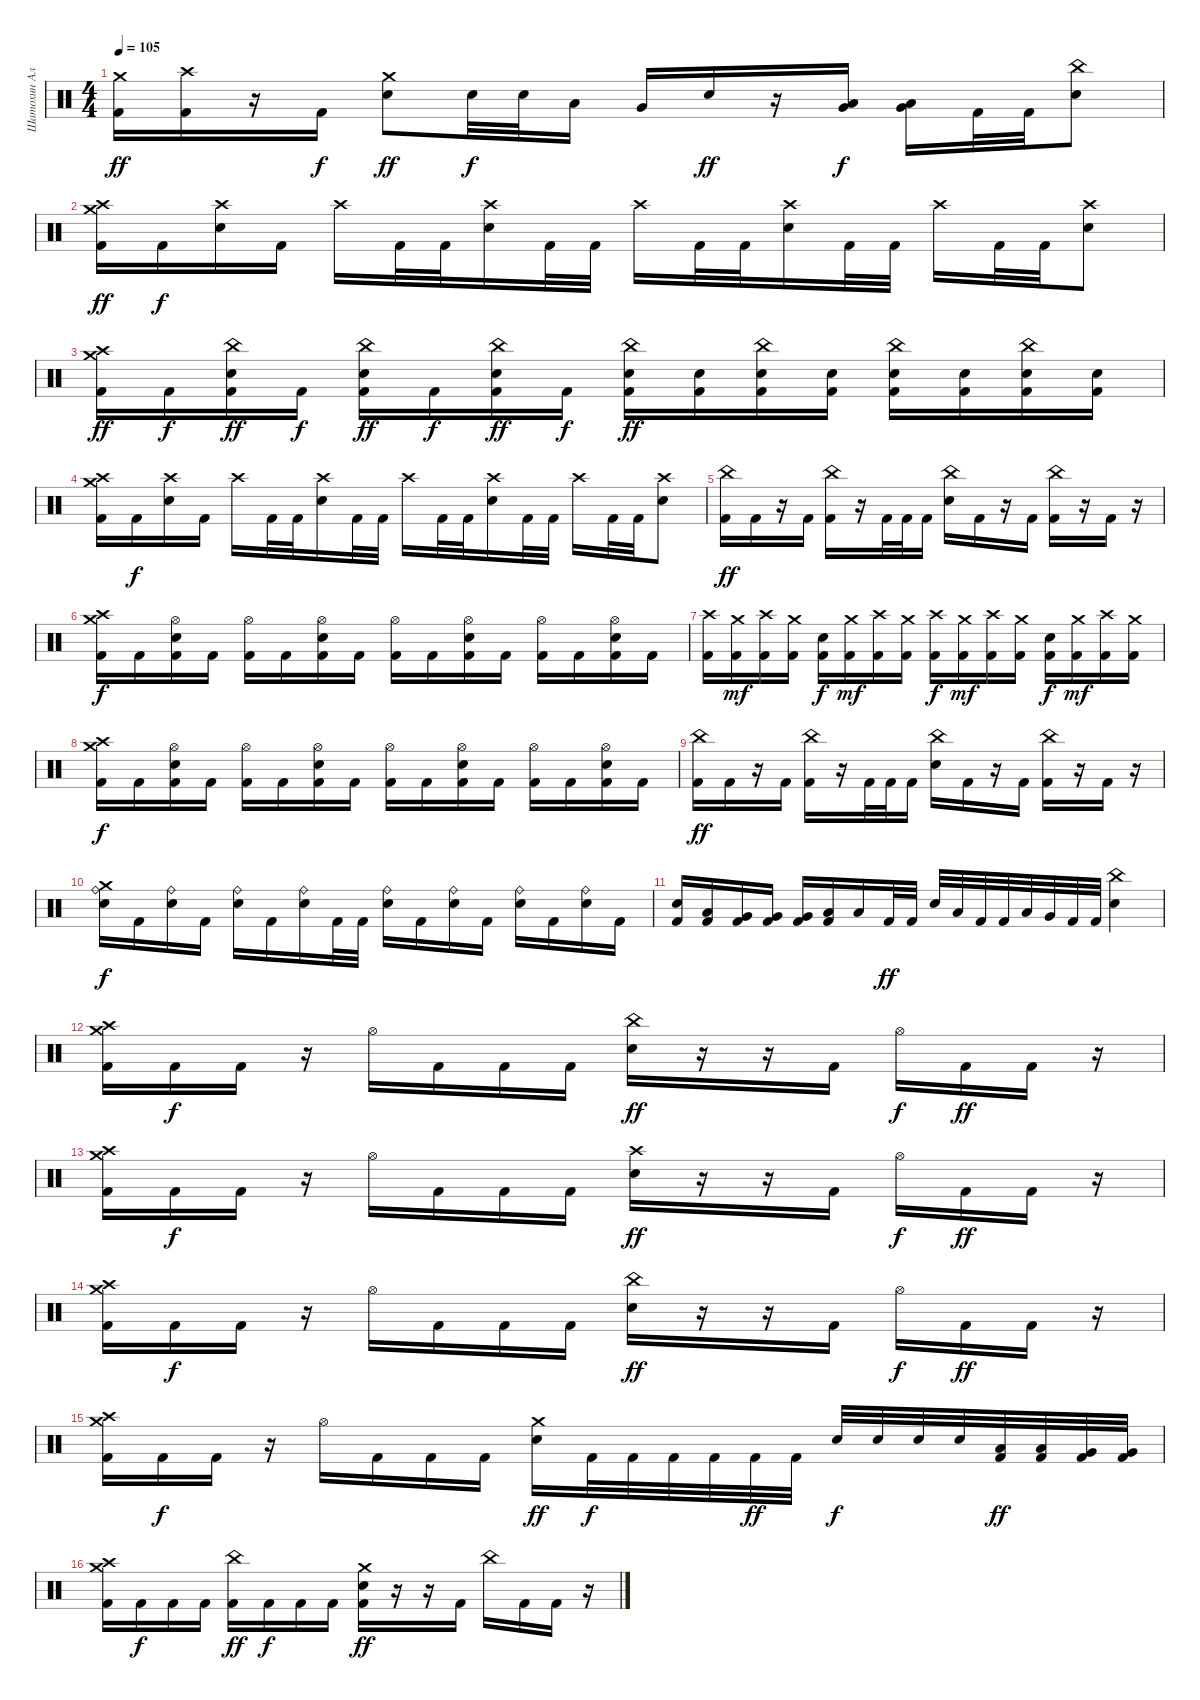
\track ("Шатохин Алексей" "Шатохин Ал") {instrument percussion}
\staff {score}
\articulation defaults
\ts (4 4)
\tempo 105
\clef neutral
\ks c
("Crash medium (hit)" "Kick (hit) 2").16{dy ff} ("Crash high (hit)" "Kick (hit) 2").16 r.16 "Kick (hit) 2".16{dy f} ("Crash medium (hit)" "Electric Snare (hit)").8{dy ff} "Electric Snare (hit)".32{dy f} "Electric Snare (hit)".32 "Low Tom (hit)".16 "Very Low Tom (hit)".16 "Electric Snare (hit)".16{dy ff} r.16 ("Very Low Tom (hit)" "Low Floor Tom (hit)").16{dy f} ("Very Low Tom (hit)" "Low Floor Tom (hit)").16 "Kick (hit) 2".32 "Kick (hit) 2".32 ("China (hit)" "Electric Snare (hit)").8 |
("Crash high (hit)" "Crash medium (hit)" "Kick (hit) 2").16{dy ff} "Kick (hit) 2".16{dy f} ("Crash high (hit)" "Electric Snare (hit)").16 "Kick (hit) 2".16 "Crash high (hit)".16 "Kick (hit) 2".32 "Kick (hit) 2".32 ("Crash high (hit)" "Electric Snare (hit)").16 "Kick (hit) 2".32 "Kick (hit) 2".32 "Crash high (hit)".16 "Kick (hit) 2".32 "Kick (hit) 2".32 ("Crash high (hit)" "Electric Snare (hit)").16 "Kick (hit) 2".32 "Kick (hit) 2".32 "Crash high (hit)".16 "Kick (hit) 2".32 "Kick (hit) 2".32 ("Crash high (hit)" "Electric Snare (hit)").8 |
("Crash high (hit)" "Crash medium (hit)" "Kick (hit) 2").16{dy ff} "Kick (hit) 2".16{dy f} ("China (hit)" "Electric Snare (hit)" "Kick (hit) 2").16{dy ff} "Kick (hit) 2".16{dy f} ("China (hit)" "Electric Snare (hit)" "Kick (hit) 2").16{dy ff} "Kick (hit) 2".16{dy f} ("China (hit)" "Electric Snare (hit)" "Kick (hit) 2").16{dy ff} "Kick (hit) 2".16{dy f} ("China (hit)" "Electric Snare (hit)" "Kick (hit) 2").16{dy ff} ("Electric Snare (hit)" "Kick (hit) 2").16 ("China (hit)" "Electric Snare (hit)" "Kick (hit) 2").16 ("Electric Snare (hit)" "Kick (hit) 2").16 ("China (hit)" "Electric Snare (hit)" "Kick (hit) 2").16 ("Electric Snare (hit)" "Kick (hit) 2").16 ("China (hit)" "Electric Snare (hit)" "Kick (hit) 2").16 ("Electric Snare (hit)" "Kick (hit) 2").16 |
("Crash high (hit)" "Crash medium (hit)" "Kick (hit) 2").16 "Kick (hit) 2".16{dy f} ("Crash high (hit)" "Electric Snare (hit)").16 "Kick (hit) 2".16 "Crash high (hit)".16 "Kick (hit) 2".32 "Kick (hit) 2".32 ("Crash high (hit)" "Electric Snare (hit)").16 "Kick (hit) 2".32 "Kick (hit) 2".32 "Crash high (hit)".16 "Kick (hit) 2".32 "Kick (hit) 2".32 ("Crash high (hit)" "Electric Snare (hit)").16 "Kick (hit) 2".32 "Kick (hit) 2".32 "Crash high (hit)".16 "Kick (hit) 2".32 "Kick (hit) 2".32 ("Crash high (hit)" "Electric Snare (hit)").8 |
("China (hit)" "Kick (hit) 2").16{dy ff} "Kick (hit) 2".16 r.16 "Kick (hit) 2".16 ("China (hit)" "Kick (hit) 2").16 r.16 "Kick (hit) 2".32 "Kick (hit) 2".32 "Kick (hit) 2".16 ("China (hit)" "Electric Snare (hit)").16 "Kick (hit) 2".16 r.16 "Kick (hit) 2".16 ("China (hit)" "Kick (hit) 2").16 r.16 "Kick (hit) 2".16 r.16 |
("Crash medium (hit)" "Crash high (hit)" "Kick (hit) 2").16{dy f} "Kick (hit) 2".16 ("Hi-Hat (open)" "Electric Snare (hit)" "Kick (hit) 2").16 "Kick (hit) 2".16 ("Hi-Hat (open)" "Kick (hit) 2").16 "Kick (hit) 2".16 ("Hi-Hat (open)" "Electric Snare (hit)" "Kick (hit) 2").16 "Kick (hit) 2".16 ("Hi-Hat (open)" "Kick (hit) 2").16 "Kick (hit) 2".16 ("Hi-Hat (open)" "Electric Snare (hit)" "Kick (hit) 2").16 "Kick (hit) 2".16 ("Hi-Hat (open)" "Kick (hit) 2").16 "Kick (hit) 2".16 ("Hi-Hat (open)" "Electric Snare (hit)" "Kick (hit) 2").16 "Kick (hit) 2".16 |
("Crash high (hit)" "Kick (hit) 2").16 ("Crash medium (hit)" "Kick (hit) 2").16{dy mf} ("Crash high (hit)" "Kick (hit) 2").16 ("Crash medium (hit)" "Kick (hit) 2").16 ("Electric Snare (hit)" "Kick (hit) 2").16{dy f} ("Crash medium (hit)" "Kick (hit) 2").16{dy mf} ("Crash high (hit)" "Kick (hit) 2").16 ("Crash medium (hit)" "Kick (hit) 2").16 ("Crash high (hit)" "Kick (hit) 2").16{dy f} ("Crash medium (hit)" "Kick (hit) 2").16{dy mf} ("Crash high (hit)" "Kick (hit) 2").16 ("Crash medium (hit)" "Kick (hit) 2").16 ("Electric Snare (hit)" "Kick (hit) 2").16{dy f} ("Crash medium (hit)" "Kick (hit) 2").16{dy mf} ("Crash high (hit)" "Kick (hit) 2").16 ("Crash medium (hit)" "Kick (hit) 2").16 |
("Crash medium (hit)" "Crash high (hit)" "Kick (hit) 2").16{dy f} "Kick (hit) 2".16 ("Hi-Hat (open)" "Electric Snare (hit)" "Kick (hit) 2").16 "Kick (hit) 2".16 ("Hi-Hat (open)" "Kick (hit) 2").16 "Kick (hit) 2".16 ("Hi-Hat (open)" "Electric Snare (hit)" "Kick (hit) 2").16 "Kick (hit) 2".16 ("Hi-Hat (open)" "Kick (hit) 2").16 "Kick (hit) 2".16 ("Hi-Hat (open)" "Electric Snare (hit)" "Kick (hit) 2").16 "Kick (hit) 2".16 ("Hi-Hat (open)" "Kick (hit) 2").16 "Kick (hit) 2".16 ("Hi-Hat (open)" "Electric Snare (hit)" "Kick (hit) 2").16 "Kick (hit) 2".16 |
("China (hit)" "Kick (hit) 2").16{dy ff} "Kick (hit) 2".16 r.16 "Kick (hit) 2".16 ("China (hit)" "Kick (hit) 2").16 r.16 "Kick (hit) 2".32 "Kick (hit) 2".32 "Kick (hit) 2".16 ("China (hit)" "Electric Snare (hit)").16 "Kick (hit) 2".16 r.16 "Kick (hit) 2".16 ("China (hit)" "Kick (hit) 2").16 r.16 "Kick (hit) 2".16 r.16 |
("Crash medium (hit)" "Ride (bell)" "Electric Snare (hit)").16{dy f} "Kick (hit) 2".16 ("Ride (bell)" "Electric Snare (hit)").16 "Kick (hit) 2".16 ("Ride (bell)" "Electric Snare (hit)").16 "Kick (hit) 2".16 ("Ride (bell)" "Electric Snare (hit)").16 "Kick (hit) 2".32 "Kick (hit) 2".32 ("Ride (bell)" "Electric Snare (hit)").16 "Kick (hit) 2".16 ("Ride (bell)" "Electric Snare (hit)").16 "Kick (hit) 2".16 ("Ride (bell)" "Electric Snare (hit)").16 "Kick (hit) 2".16 ("Ride (bell)" "Electric Snare (hit)").16 "Kick (hit) 2".16 |
("Electric Snare (hit)" "Kick (hit) 2").16 ("Low Tom (hit)" "Kick (hit) 2").16 ("Very Low Tom (hit)" "Kick (hit) 2").16 ("Very Low Tom (hit)" "Kick (hit) 2").16 ("Very Low Tom (hit)" "Kick (hit) 2").16 ("Low Floor Tom (hit)" "Kick (hit) 2").16 "Low Floor Tom (hit)".16 "Kick (hit) 2".32{dy ff} "Kick (hit) 2".32 "Electric Snare (hit)".32 "Low Tom (hit)".32 "Kick (hit) 2".32 "Kick (hit) 2".32 "Low Floor Tom (hit)".32 "Very Low Tom (hit)".32 "Kick (hit) 2".32 "Kick (hit) 2".32 ("China (hit)" "Electric Snare (hit)").4 |
("Crash high (hit)" "Crash medium (hit)" "Kick (hit) 2").16 "Kick (hit) 2".16{dy f} "Kick (hit) 2".16 r.16 "Hi-Hat (open)".16 "Kick (hit) 2".16 "Kick (hit) 2".16 "Kick (hit) 2".16 ("China (hit)" "Electric Snare (hit)").16{dy ff} r.16 r.16 "Kick (hit) 2".16 "Hi-Hat (open)".16{dy f} "Kick (hit) 2".16{dy ff} "Kick (hit) 2".16 r.16 |
("Crash high (hit)" "Crash medium (hit)" "Kick (hit) 2").16 "Kick (hit) 2".16{dy f} "Kick (hit) 2".16 r.16 "Hi-Hat (open)".16 "Kick (hit) 2".16 "Kick (hit) 2".16 "Kick (hit) 2".16 ("Crash high (hit)" "Electric Snare (hit)").16{dy ff} r.16 r.16 "Kick (hit) 2".16 "Hi-Hat (open)".16{dy f} "Kick (hit) 2".16{dy ff} "Kick (hit) 2".16 r.16 |
("Crash high (hit)" "Crash medium (hit)" "Kick (hit) 2").16 "Kick (hit) 2".16{dy f} "Kick (hit) 2".16 r.16 "Hi-Hat (open)".16 "Kick (hit) 2".16 "Kick (hit) 2".16 "Kick (hit) 2".16 ("China (hit)" "Electric Snare (hit)").16{dy ff} r.16 r.16 "Kick (hit) 2".16 "Hi-Hat (open)".16{dy f} "Kick (hit) 2".16{dy ff} "Kick (hit) 2".16 r.16 |
("Crash high (hit)" "Crash medium (hit)" "Kick (hit) 2").16 "Kick (hit) 2".16{dy f} "Kick (hit) 2".16 r.16 "Hi-Hat (open)".16 "Kick (hit) 2".16 "Kick (hit) 2".16 "Kick (hit) 2".16 ("Crash medium (hit)" "Electric Snare (hit)").16{dy ff} "Kick (hit) 2".32{dy f} "Kick (hit) 2".32 "Kick (hit) 2".32 "Kick (hit) 2".32 "Kick (hit) 2".32{dy ff} "Kick (hit) 2".32 "Electric Snare (hit)".32{dy f} "Electric Snare (hit)".32 "Electric Snare (hit)".32 "Electric Snare (hit)".32 ("Low Tom (hit)" "Kick (hit) 2").32{dy ff} ("Low Tom (hit)" "Kick (hit) 2").32 ("Very Low Tom (hit)" "Kick (hit) 2").32 ("Very Low Tom (hit)" "Kick (hit) 2").32 |
("Crash high (hit)" "Crash medium (hit)" "Kick (hit) 2").16 "Kick (hit) 2".16{dy f} "Kick (hit) 2".16 "Kick (hit) 2".16 ("China (hit)" "Kick (hit) 2").16{dy ff} "Kick (hit) 2".16{dy f} "Kick (hit) 2".16 "Kick (hit) 2".16 ("Crash medium (hit)" "Electric Snare (hit)" "Kick (hit) 2").16{dy ff} r.16 r.16 "Kick (hit) 2".16 "China (hit)".16 "Kick (hit) 2".16 "Kick (hit) 2".16 r.16
